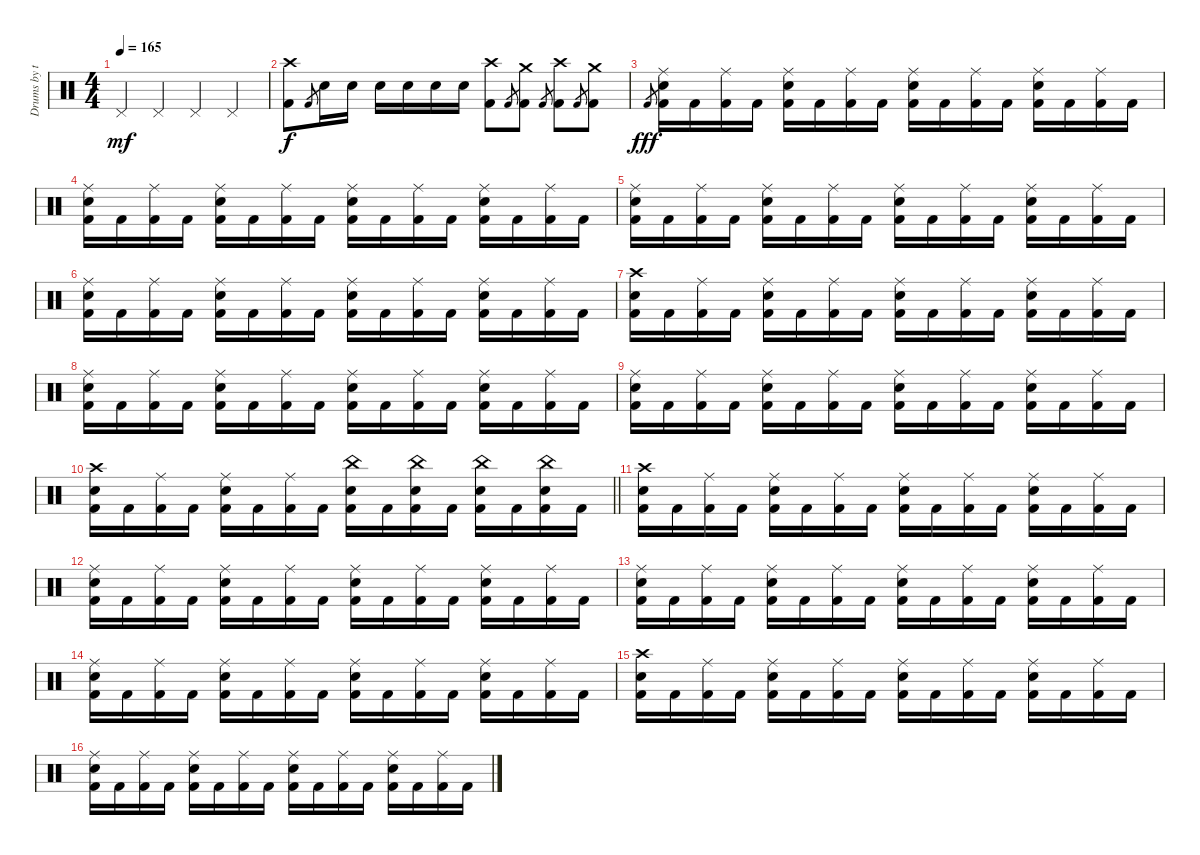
\track ("Drums by terryn0" "Drums by t") {instrument percussion}
\staff {score}
\articulation defaults
\ts (4 4)
\tempo 165
\clef neutral
\ks c "Pedal Hi-Hat (hit)".4{dy mf} "Pedal Hi-Hat (hit)".4 "Pedal Hi-Hat (hit)".4 "Pedal Hi-Hat (hit)".4
|
("Crash high (hit)" "Kick (hit) 2").8{dy f} "Kick (hit) 2".8{gr} "Electric Snare (hit)".16 "Electric Snare (hit)".16 "Electric Snare (hit)".16 "Electric Snare (hit)".16 "Electric Snare (hit)".16 "Electric Snare (hit)".16 ("Crash high (hit)" "Kick (hit) 2").8 "Kick (hit) 2".8{gr} ("Crash medium (hit)" "Kick (hit) 2").8 "Kick (hit) 2".8{gr} ("Crash high (hit)" "Kick (hit) 2").8 "Kick (hit) 2".8{gr} ("Crash medium (hit)" "Kick (hit) 2").8 |
"Kick (hit) 2".8{gr dy fff} ("Ride (middle)" "Electric Snare (hit)" "Kick (hit) 2").16 "Kick (hit) 2".16 ("Ride (middle)" "Kick (hit) 2").16 "Kick (hit) 2".16 ("Ride (middle)" "Electric Snare (hit)" "Kick (hit) 2").16 "Kick (hit) 2".16 ("Ride (middle)" "Kick (hit) 2").16 "Kick (hit) 2".16 ("Ride (middle)" "Electric Snare (hit)" "Kick (hit) 2").16 "Kick (hit) 2".16 ("Ride (middle)" "Kick (hit) 2").16 "Kick (hit) 2".16 ("Ride (middle)" "Electric Snare (hit)" "Kick (hit) 2").16 "Kick (hit) 2".16 ("Ride (middle)" "Kick (hit) 2").16 "Kick (hit) 2".16 |
("Ride (middle)" "Electric Snare (hit)" "Kick (hit) 2").16 "Kick (hit) 2".16 ("Ride (middle)" "Kick (hit) 2").16 "Kick (hit) 2".16 ("Ride (middle)" "Electric Snare (hit)" "Kick (hit) 2").16 "Kick (hit) 2".16 ("Ride (middle)" "Kick (hit) 2").16 "Kick (hit) 2".16 ("Ride (middle)" "Electric Snare (hit)" "Kick (hit) 2").16 "Kick (hit) 2".16 ("Ride (middle)" "Kick (hit) 2").16 "Kick (hit) 2".16 ("Ride (middle)" "Electric Snare (hit)" "Kick (hit) 2").16 "Kick (hit) 2".16 ("Ride (middle)" "Kick (hit) 2").16 "Kick (hit) 2".16 |
("Ride (middle)" "Electric Snare (hit)" "Kick (hit) 2").16 "Kick (hit) 2".16 ("Ride (middle)" "Kick (hit) 2").16 "Kick (hit) 2".16 ("Ride (middle)" "Electric Snare (hit)" "Kick (hit) 2").16 "Kick (hit) 2".16 ("Ride (middle)" "Kick (hit) 2").16 "Kick (hit) 2".16 ("Ride (middle)" "Electric Snare (hit)" "Kick (hit) 2").16 "Kick (hit) 2".16 ("Ride (middle)" "Kick (hit) 2").16 "Kick (hit) 2".16 ("Ride (middle)" "Electric Snare (hit)" "Kick (hit) 2").16 "Kick (hit) 2".16 ("Ride (middle)" "Kick (hit) 2").16 "Kick (hit) 2".16 |
("Ride (middle)" "Electric Snare (hit)" "Kick (hit) 2").16 "Kick (hit) 2".16 ("Ride (middle)" "Kick (hit) 2").16 "Kick (hit) 2".16 ("Ride (middle)" "Electric Snare (hit)" "Kick (hit) 2").16 "Kick (hit) 2".16 ("Ride (middle)" "Kick (hit) 2").16 "Kick (hit) 2".16 ("Ride (middle)" "Electric Snare (hit)" "Kick (hit) 2").16 "Kick (hit) 2".16 ("Ride (middle)" "Kick (hit) 2").16 "Kick (hit) 2".16 ("Ride (middle)" "Electric Snare (hit)" "Kick (hit) 2").16 "Kick (hit) 2".16 ("Ride (middle)" "Kick (hit) 2").16 "Kick (hit) 2".16 |
("Crash high (hit)" "Electric Snare (hit)" "Kick (hit) 2").16 "Kick (hit) 2".16 ("Ride (middle)" "Kick (hit) 2").16 "Kick (hit) 2".16 ("Ride (middle)" "Electric Snare (hit)" "Kick (hit) 2").16 "Kick (hit) 2".16 ("Ride (middle)" "Kick (hit) 2").16 "Kick (hit) 2".16 ("Ride (middle)" "Electric Snare (hit)" "Kick (hit) 2").16 "Kick (hit) 2".16 ("Ride (middle)" "Kick (hit) 2").16 "Kick (hit) 2".16 ("Ride (middle)" "Electric Snare (hit)" "Kick (hit) 2").16 "Kick (hit) 2".16 ("Ride (middle)" "Kick (hit) 2").16 "Kick (hit) 2".16 |
("Ride (middle)" "Electric Snare (hit)" "Kick (hit) 2").16 "Kick (hit) 2".16 ("Ride (middle)" "Kick (hit) 2").16 "Kick (hit) 2".16 ("Ride (middle)" "Electric Snare (hit)" "Kick (hit) 2").16 "Kick (hit) 2".16 ("Ride (middle)" "Kick (hit) 2").16 "Kick (hit) 2".16 ("Ride (middle)" "Electric Snare (hit)" "Kick (hit) 2").16 "Kick (hit) 2".16 ("Ride (middle)" "Kick (hit) 2").16 "Kick (hit) 2".16 ("Ride (middle)" "Electric Snare (hit)" "Kick (hit) 2").16 "Kick (hit) 2".16 ("Ride (middle)" "Kick (hit) 2").16 "Kick (hit) 2".16 |
("Ride (middle)" "Electric Snare (hit)" "Kick (hit) 2").16 "Kick (hit) 2".16 ("Ride (middle)" "Kick (hit) 2").16 "Kick (hit) 2".16 ("Ride (middle)" "Electric Snare (hit)" "Kick (hit) 2").16 "Kick (hit) 2".16 ("Ride (middle)" "Kick (hit) 2").16 "Kick (hit) 2".16 ("Ride (middle)" "Electric Snare (hit)" "Kick (hit) 2").16 "Kick (hit) 2".16 ("Ride (middle)" "Kick (hit) 2").16 "Kick (hit) 2".16 ("Ride (middle)" "Electric Snare (hit)" "Kick (hit) 2").16 "Kick (hit) 2".16 ("Ride (middle)" "Kick (hit) 2").16 "Kick (hit) 2".16 |
\barLineRight lightlight
("Crash high (hit)" "Electric Snare (hit)" "Kick (hit) 2").16 "Kick (hit) 2".16 ("Ride (middle)" "Kick (hit) 2").16 "Kick (hit) 2".16 ("Ride (middle)" "Electric Snare (hit)" "Kick (hit) 2").16 "Kick (hit) 2".16 ("Ride (middle)" "Kick (hit) 2").16 "Kick (hit) 2".16 ("China (hit)" "Electric Snare (hit)" "Kick (hit) 2").16 "Kick (hit) 2".16 ("China (hit)" "Electric Snare (hit)" "Kick (hit) 2").16 "Kick (hit) 2".16 ("China (hit)" "Electric Snare (hit)" "Kick (hit) 2").16 "Kick (hit) 2".16 ("China (hit)" "Electric Snare (hit)" "Kick (hit) 2").16 "Kick (hit) 2".16 |
("Crash high (hit)" "Electric Snare (hit)" "Kick (hit) 2").16 "Kick (hit) 2".16 ("Ride (middle)" "Kick (hit) 2").16 "Kick (hit) 2".16 ("Ride (middle)" "Electric Snare (hit)" "Kick (hit) 2").16 "Kick (hit) 2".16 ("Ride (middle)" "Kick (hit) 2").16 "Kick (hit) 2".16 ("Ride (middle)" "Electric Snare (hit)" "Kick (hit) 2").16 "Kick (hit) 2".16 ("Ride (middle)" "Kick (hit) 2").16 "Kick (hit) 2".16 ("Ride (middle)" "Electric Snare (hit)" "Kick (hit) 2").16 "Kick (hit) 2".16 ("Ride (middle)" "Kick (hit) 2").16 "Kick (hit) 2".16 |
("Ride (middle)" "Electric Snare (hit)" "Kick (hit) 2").16 "Kick (hit) 2".16 ("Ride (middle)" "Kick (hit) 2").16 "Kick (hit) 2".16 ("Ride (middle)" "Electric Snare (hit)" "Kick (hit) 2").16 "Kick (hit) 2".16 ("Ride (middle)" "Kick (hit) 2").16 "Kick (hit) 2".16 ("Ride (middle)" "Electric Snare (hit)" "Kick (hit) 2").16 "Kick (hit) 2".16 ("Ride (middle)" "Kick (hit) 2").16 "Kick (hit) 2".16 ("Ride (middle)" "Electric Snare (hit)" "Kick (hit) 2").16 "Kick (hit) 2".16 ("Ride (middle)" "Kick (hit) 2").16 "Kick (hit) 2".16 |
("Ride (middle)" "Electric Snare (hit)" "Kick (hit) 2").16 "Kick (hit) 2".16 ("Ride (middle)" "Kick (hit) 2").16 "Kick (hit) 2".16 ("Ride (middle)" "Electric Snare (hit)" "Kick (hit) 2").16 "Kick (hit) 2".16 ("Ride (middle)" "Kick (hit) 2").16 "Kick (hit) 2".16 ("Ride (middle)" "Electric Snare (hit)" "Kick (hit) 2").16 "Kick (hit) 2".16 ("Ride (middle)" "Kick (hit) 2").16 "Kick (hit) 2".16 ("Ride (middle)" "Electric Snare (hit)" "Kick (hit) 2").16 "Kick (hit) 2".16 ("Ride (middle)" "Kick (hit) 2").16 "Kick (hit) 2".16 |
("Ride (middle)" "Electric Snare (hit)" "Kick (hit) 2").16 "Kick (hit) 2".16 ("Ride (middle)" "Kick (hit) 2").16 "Kick (hit) 2".16 ("Ride (middle)" "Electric Snare (hit)" "Kick (hit) 2").16 "Kick (hit) 2".16 ("Ride (middle)" "Kick (hit) 2").16 "Kick (hit) 2".16 ("Ride (middle)" "Electric Snare (hit)" "Kick (hit) 2").16 "Kick (hit) 2".16 ("Ride (middle)" "Kick (hit) 2").16 "Kick (hit) 2".16 ("Ride (middle)" "Electric Snare (hit)" "Kick (hit) 2").16 "Kick (hit) 2".16 ("Ride (middle)" "Kick (hit) 2").16 "Kick (hit) 2".16 |
("Crash high (hit)" "Electric Snare (hit)" "Kick (hit) 2").16 "Kick (hit) 2".16 ("Ride (middle)" "Kick (hit) 2").16 "Kick (hit) 2".16 ("Ride (middle)" "Electric Snare (hit)" "Kick (hit) 2").16 "Kick (hit) 2".16 ("Ride (middle)" "Kick (hit) 2").16 "Kick (hit) 2".16 ("Ride (middle)" "Electric Snare (hit)" "Kick (hit) 2").16 "Kick (hit) 2".16 ("Ride (middle)" "Kick (hit) 2").16 "Kick (hit) 2".16 ("Ride (middle)" "Electric Snare (hit)" "Kick (hit) 2").16 "Kick (hit) 2".16 ("Ride (middle)" "Kick (hit) 2").16 "Kick (hit) 2".16 |
("Ride (middle)" "Electric Snare (hit)" "Kick (hit) 2").16 "Kick (hit) 2".16 ("Ride (middle)" "Kick (hit) 2").16 "Kick (hit) 2".16 ("Ride (middle)" "Electric Snare (hit)" "Kick (hit) 2").16 "Kick (hit) 2".16 ("Ride (middle)" "Kick (hit) 2").16 "Kick (hit) 2".16 ("Ride (middle)" "Electric Snare (hit)" "Kick (hit) 2").16 "Kick (hit) 2".16 ("Ride (middle)" "Kick (hit) 2").16 "Kick (hit) 2".16 ("Ride (middle)" "Electric Snare (hit)" "Kick (hit) 2").16 "Kick (hit) 2".16 ("Ride (middle)" "Kick (hit) 2").16 "Kick (hit) 2".16
